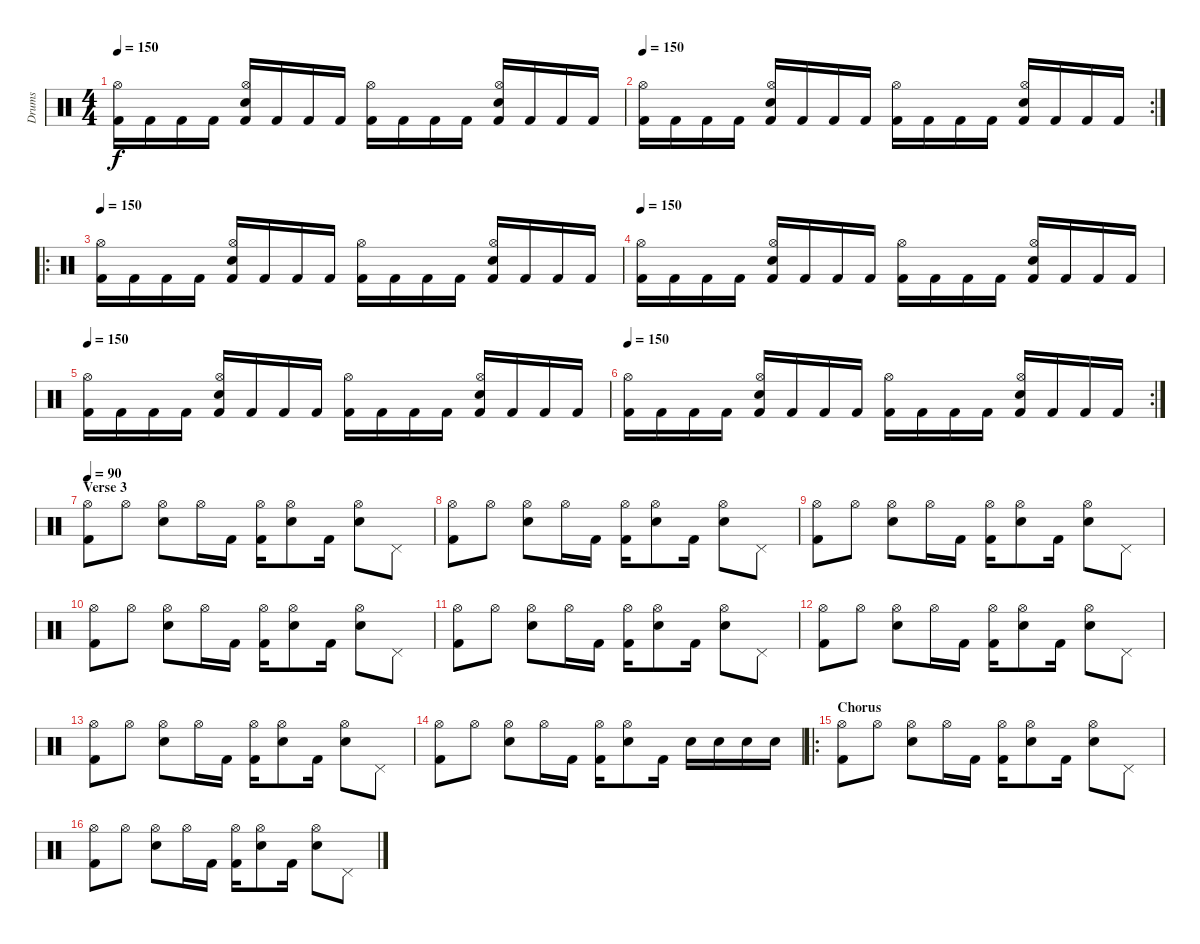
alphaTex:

\track ("Drums" "Drums") {instrument percussion}
\staff {score}
\articulation defaults
\ts (4 4)
\tempo 150
\clef neutral
\ks c
("Kick (hit) 2" "Hi-Hat (open)").16{dy f} "Kick (hit) 2".16 "Kick (hit) 2".16 "Kick (hit) 2".16 ("Kick (hit) 2" "Hi-Hat (open)" "Electric Snare (hit)").16 "Kick (hit) 2".16 "Kick (hit) 2".16 "Kick (hit) 2".16 ("Kick (hit) 2" "Hi-Hat (open)").16 "Kick (hit) 2".16 "Kick (hit) 2".16 "Kick (hit) 2".16 ("Kick (hit) 2" "Hi-Hat (open)" "Electric Snare (hit)").16 "Kick (hit) 2".16 "Kick (hit) 2".16 "Kick (hit) 2".16 |
\rc 2
\tempo 150
("Kick (hit) 2" "Hi-Hat (open)").16 "Kick (hit) 2".16 "Kick (hit) 2".16 "Kick (hit) 2".16 ("Kick (hit) 2" "Hi-Hat (open)" "Electric Snare (hit)").16 "Kick (hit) 2".16 "Kick (hit) 2".16 "Kick (hit) 2".16 ("Kick (hit) 2" "Hi-Hat (open)").16 "Kick (hit) 2".16 "Kick (hit) 2".16 "Kick (hit) 2".16 ("Kick (hit) 2" "Hi-Hat (open)" "Electric Snare (hit)").16 "Kick (hit) 2".16 "Kick (hit) 2".16 "Kick (hit) 2".16 |
\ro
\tempo 150
("Kick (hit) 2" "Hi-Hat (open)").16 "Kick (hit) 2".16 "Kick (hit) 2".16 "Kick (hit) 2".16 ("Kick (hit) 2" "Hi-Hat (open)" "Electric Snare (hit)").16 "Kick (hit) 2".16 "Kick (hit) 2".16 "Kick (hit) 2".16 ("Kick (hit) 2" "Hi-Hat (open)").16 "Kick (hit) 2".16 "Kick (hit) 2".16 "Kick (hit) 2".16 ("Kick (hit) 2" "Hi-Hat (open)" "Electric Snare (hit)").16 "Kick (hit) 2".16 "Kick (hit) 2".16 "Kick (hit) 2".16 |
\tempo 150
("Kick (hit) 2" "Hi-Hat (open)").16 "Kick (hit) 2".16 "Kick (hit) 2".16 "Kick (hit) 2".16 ("Kick (hit) 2" "Hi-Hat (open)" "Electric Snare (hit)").16 "Kick (hit) 2".16 "Kick (hit) 2".16 "Kick (hit) 2".16 ("Kick (hit) 2" "Hi-Hat (open)").16 "Kick (hit) 2".16 "Kick (hit) 2".16 "Kick (hit) 2".16 ("Kick (hit) 2" "Hi-Hat (open)" "Electric Snare (hit)").16 "Kick (hit) 2".16 "Kick (hit) 2".16 "Kick (hit) 2".16 |
\tempo 150
("Kick (hit) 2" "Hi-Hat (open)").16 "Kick (hit) 2".16 "Kick (hit) 2".16 "Kick (hit) 2".16 ("Kick (hit) 2" "Hi-Hat (open)" "Electric Snare (hit)").16 "Kick (hit) 2".16 "Kick (hit) 2".16 "Kick (hit) 2".16 ("Kick (hit) 2" "Hi-Hat (open)").16 "Kick (hit) 2".16 "Kick (hit) 2".16 "Kick (hit) 2".16 ("Kick (hit) 2" "Hi-Hat (open)" "Electric Snare (hit)").16 "Kick (hit) 2".16 "Kick (hit) 2".16 "Kick (hit) 2".16 |
\rc 2
\tempo 150
("Kick (hit) 2" "Hi-Hat (open)").16 "Kick (hit) 2".16 "Kick (hit) 2".16 "Kick (hit) 2".16 ("Kick (hit) 2" "Hi-Hat (open)" "Electric Snare (hit)").16 "Kick (hit) 2".16 "Kick (hit) 2".16 "Kick (hit) 2".16 ("Kick (hit) 2" "Hi-Hat (open)").16 "Kick (hit) 2".16 "Kick (hit) 2".16 "Kick (hit) 2".16 ("Kick (hit) 2" "Hi-Hat (open)" "Electric Snare (hit)").16 "Kick (hit) 2".16 "Kick (hit) 2".16 "Kick (hit) 2".16 |
\section ("" "Verse 3")
\tempo 90
("Kick (hit) 2" "Hi-Hat (open)").8 "Hi-Hat (open)".8 ("Electric Snare (hit)" "Hi-Hat (open)").8 "Hi-Hat (open)".16 "Kick (hit) 2".16 ("Kick (hit) 2" "Hi-Hat (open)").16 ("Electric Snare (hit)" "Hi-Hat (open)").8 "Kick (hit) 2".16 ("Electric Snare (hit)" "Hi-Hat (open)").8 "Pedal Hi-Hat (hit)".8 |
("Kick (hit) 2" "Hi-Hat (open)").8 "Hi-Hat (open)".8 ("Electric Snare (hit)" "Hi-Hat (open)").8 "Hi-Hat (open)".16 "Kick (hit) 2".16 ("Kick (hit) 2" "Hi-Hat (open)").16 ("Electric Snare (hit)" "Hi-Hat (open)").8 "Kick (hit) 2".16 ("Electric Snare (hit)" "Hi-Hat (open)").8 "Pedal Hi-Hat (hit)".8 |
("Kick (hit) 2" "Hi-Hat (open)").8 "Hi-Hat (open)".8 ("Electric Snare (hit)" "Hi-Hat (open)").8 "Hi-Hat (open)".16 "Kick (hit) 2".16 ("Kick (hit) 2" "Hi-Hat (open)").16 ("Electric Snare (hit)" "Hi-Hat (open)").8 "Kick (hit) 2".16 ("Electric Snare (hit)" "Hi-Hat (open)").8 "Pedal Hi-Hat (hit)".8 |
("Kick (hit) 2" "Hi-Hat (open)").8 "Hi-Hat (open)".8 ("Electric Snare (hit)" "Hi-Hat (open)").8 "Hi-Hat (open)".16 "Kick (hit) 2".16 ("Kick (hit) 2" "Hi-Hat (open)").16 ("Electric Snare (hit)" "Hi-Hat (open)").8 "Kick (hit) 2".16 ("Electric Snare (hit)" "Hi-Hat (open)").8 "Pedal Hi-Hat (hit)".8 |
("Kick (hit) 2" "Hi-Hat (open)").8 "Hi-Hat (open)".8 ("Electric Snare (hit)" "Hi-Hat (open)").8 "Hi-Hat (open)".16 "Kick (hit) 2".16 ("Kick (hit) 2" "Hi-Hat (open)").16 ("Electric Snare (hit)" "Hi-Hat (open)").8 "Kick (hit) 2".16 ("Electric Snare (hit)" "Hi-Hat (open)").8 "Pedal Hi-Hat (hit)".8 |
("Kick (hit) 2" "Hi-Hat (open)").8 "Hi-Hat (open)".8 ("Electric Snare (hit)" "Hi-Hat (open)").8 "Hi-Hat (open)".16 "Kick (hit) 2".16 ("Kick (hit) 2" "Hi-Hat (open)").16 ("Electric Snare (hit)" "Hi-Hat (open)").8 "Kick (hit) 2".16 ("Electric Snare (hit)" "Hi-Hat (open)").8 "Pedal Hi-Hat (hit)".8 |
("Kick (hit) 2" "Hi-Hat (open)").8 "Hi-Hat (open)".8 ("Electric Snare (hit)" "Hi-Hat (open)").8 "Hi-Hat (open)".16 "Kick (hit) 2".16 ("Kick (hit) 2" "Hi-Hat (open)").16 ("Electric Snare (hit)" "Hi-Hat (open)").8 "Kick (hit) 2".16 ("Electric Snare (hit)" "Hi-Hat (open)").8 "Pedal Hi-Hat (hit)".8 |
("Kick (hit) 2" "Hi-Hat (open)").8 "Hi-Hat (open)".8 ("Electric Snare (hit)" "Hi-Hat (open)").8 "Hi-Hat (open)".16 "Kick (hit) 2".16 ("Kick (hit) 2" "Hi-Hat (open)").16 ("Electric Snare (hit)" "Hi-Hat (open)").8 "Kick (hit) 2".16 "Electric Snare (hit)".16 "Electric Snare (hit)".16 "Electric Snare (hit)".16 "Electric Snare (hit)".16 |
\ro
\section ("" "Chorus")
("Kick (hit) 2" "Hi-Hat (open)").8 "Hi-Hat (open)".8 ("Electric Snare (hit)" "Hi-Hat (open)").8 "Hi-Hat (open)".16 "Kick (hit) 2".16 ("Kick (hit) 2" "Hi-Hat (open)").16 ("Electric Snare (hit)" "Hi-Hat (open)").8 "Kick (hit) 2".16 ("Electric Snare (hit)" "Hi-Hat (open)").8 "Pedal Hi-Hat (hit)".8 |
("Kick (hit) 2" "Hi-Hat (open)").8 "Hi-Hat (open)".8 ("Electric Snare (hit)" "Hi-Hat (open)").8 "Hi-Hat (open)".16 "Kick (hit) 2".16 ("Kick (hit) 2" "Hi-Hat (open)").16 ("Electric Snare (hit)" "Hi-Hat (open)").8 "Kick (hit) 2".16 ("Electric Snare (hit)" "Hi-Hat (open)").8 "Pedal Hi-Hat (hit)".8
